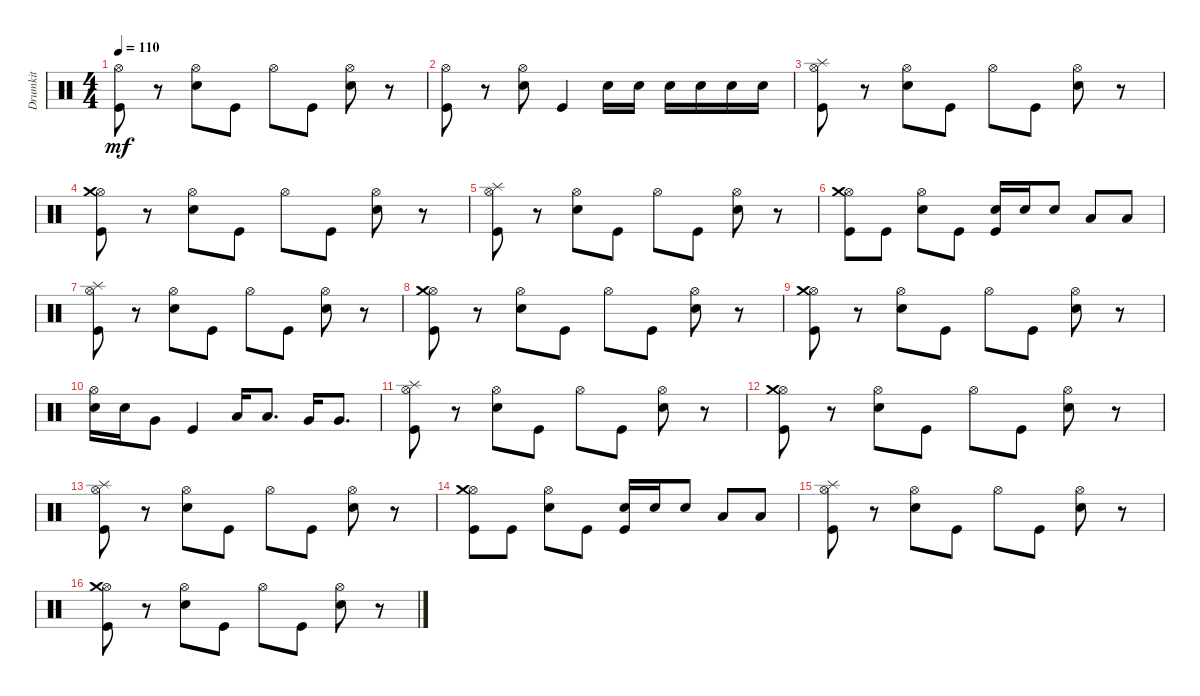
\track ("Drumkit" "Drumkit") {instrument percussion}
\staff {score}
\articulation defaults
\ts (4 4)
\tempo 110
\clef neutral
\ks c
("Kick (hit)" "Hi-Hat (open)").8{dy mf} r.8 ("Hi-Hat (open)" "Snare (hit) 2").8 "Kick (hit)".8 "Hi-Hat (open)".8 "Kick (hit)".8 ("Snare (hit) 2" "Hi-Hat (open)").8 r.8 |
("Kick (hit)" "Hi-Hat (open)").8 r.8 ("Hi-Hat (open)" "Snare (hit) 2").8 "Kick (hit)".4 "Snare (hit) 2".16 "Snare (hit) 2".16 "Snare (hit) 2".16 "Snare (hit) 2".16 "Snare (hit) 2".16 "Snare (hit) 2".16 |
("Kick (hit)" "Hi-Hat (open)" "Splash (hit)").8 r.8 ("Hi-Hat (open)" "Snare (hit) 2").8 "Kick (hit)".8 "Hi-Hat (open)".8 "Kick (hit)".8 ("Snare (hit) 2" "Hi-Hat (open)").8 r.8 |
("Kick (hit)" "Hi-Hat (open)" "Crash medium (hit)").8 r.8 ("Hi-Hat (open)" "Snare (hit) 2").8 "Kick (hit)".8 "Hi-Hat (open)".8 "Kick (hit)".8 ("Snare (hit) 2" "Hi-Hat (open)").8 r.8 |
("Kick (hit)" "Hi-Hat (open)" "Splash (hit)").8 r.8 ("Hi-Hat (open)" "Snare (hit) 2").8 "Kick (hit)".8 "Hi-Hat (open)".8 "Kick (hit)".8 ("Snare (hit) 2" "Hi-Hat (open)").8 r.8 |
("Kick (hit)" "Hi-Hat (open)" "Crash medium (hit)").8 "Kick (hit)".8 ("Snare (hit) 2" "Hi-Hat (open)").8 "Kick (hit)".8 ("Snare (hit) 2" "Kick (hit)").16 "Snare (hit) 2".16 "Snare (hit) 2".8 "Low Tom (hit)".8 "Low Floor Tom (hit)".8 |
("Kick (hit)" "Hi-Hat (open)" "Splash (hit)").8 r.8 ("Hi-Hat (open)" "Snare (hit) 2").8 "Kick (hit)".8 "Hi-Hat (open)".8 "Kick (hit)".8 ("Snare (hit) 2" "Hi-Hat (open)").8 r.8 |
("Kick (hit)" "Hi-Hat (open)" "Crash medium (hit)").8 r.8 ("Hi-Hat (open)" "Snare (hit) 2").8 "Kick (hit)".8 "Hi-Hat (open)".8 "Kick (hit)".8 ("Snare (hit) 2" "Hi-Hat (open)").8 r.8 |
("Kick (hit)" "Hi-Hat (open)" "Crash medium (hit)").8 r.8 ("Hi-Hat (open)" "Snare (hit) 2").8 "Kick (hit)".8 "Hi-Hat (open)".8 "Kick (hit)".8 ("Snare (hit) 2" "Hi-Hat (open)").8 r.8 |
("Snare (hit) 2" "Hi-Hat (open)").16 "Snare (hit) 2".16 "Very Low Tom (hit)".8 "Kick (hit)".4 "Low Tom (hit)".16 "Low Tom (hit)".8{d} "Very Low Tom (hit)".16 "Very Low Tom (hit)".8{d} |
("Kick (hit)" "Hi-Hat (open)" "Splash (hit)").8 r.8 ("Hi-Hat (open)" "Snare (hit) 2").8 "Kick (hit)".8 "Hi-Hat (open)".8 "Kick (hit)".8 ("Snare (hit) 2" "Hi-Hat (open)").8 r.8 |
("Kick (hit)" "Hi-Hat (open)" "Crash medium (hit)").8 r.8 ("Hi-Hat (open)" "Snare (hit) 2").8 "Kick (hit)".8 "Hi-Hat (open)".8 "Kick (hit)".8 ("Snare (hit) 2" "Hi-Hat (open)").8 r.8 |
("Kick (hit)" "Hi-Hat (open)" "Splash (hit)").8 r.8 ("Hi-Hat (open)" "Snare (hit) 2").8 "Kick (hit)".8 "Hi-Hat (open)".8 "Kick (hit)".8 ("Snare (hit) 2" "Hi-Hat (open)").8 r.8 |
("Kick (hit)" "Hi-Hat (open)" "Crash medium (hit)").8 "Kick (hit)".8 ("Snare (hit) 2" "Hi-Hat (open)").8 "Kick (hit)".8 ("Snare (hit) 2" "Kick (hit)").16 "Snare (hit) 2".16 "Snare (hit) 2".8 "Low Tom (hit)".8 "Low Floor Tom (hit)".8 |
("Kick (hit)" "Hi-Hat (open)" "Splash (hit)").8 r.8 ("Hi-Hat (open)" "Snare (hit) 2").8 "Kick (hit)".8 "Hi-Hat (open)".8 "Kick (hit)".8 ("Snare (hit) 2" "Hi-Hat (open)").8 r.8 |
("Kick (hit)" "Hi-Hat (open)" "Crash medium (hit)").8 r.8 ("Hi-Hat (open)" "Snare (hit) 2").8 "Kick (hit)".8 "Hi-Hat (open)".8 "Kick (hit)".8 ("Snare (hit) 2" "Hi-Hat (open)").8 r.8
